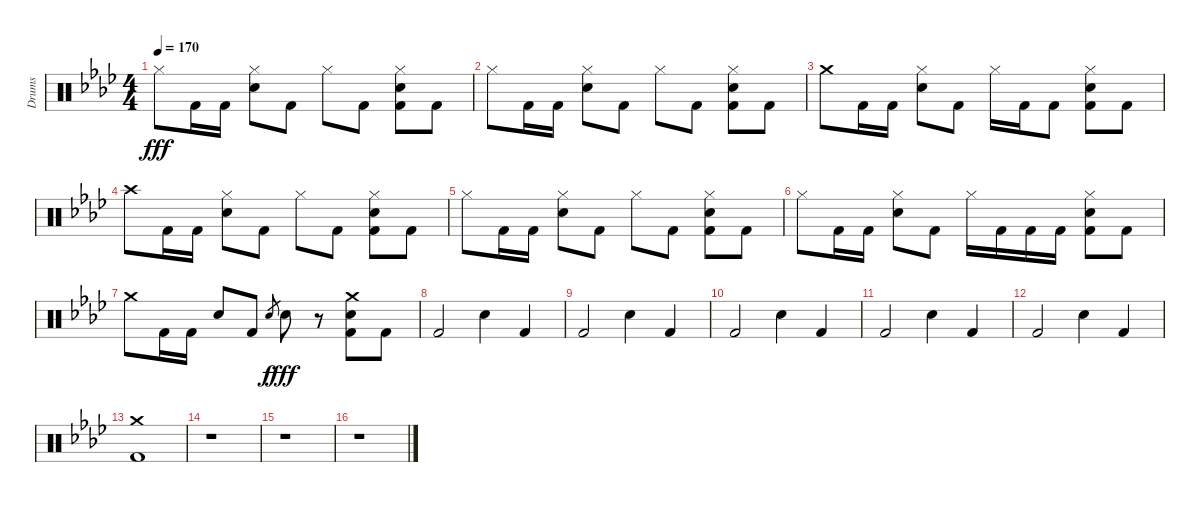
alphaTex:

\track ("Drums" "Drums") {instrument percussion}
\staff {score}
\articulation defaults
\ts (4 4)
\tempo 170
\clef neutral
\ks fminor "Hi-Hat (closed)".8{dy fff} "Kick (hit) 2".16 "Kick (hit) 2".16
("Hi-Hat (closed)" "Snare (hit) 2").8 "Kick (hit) 2".8 "Hi-Hat (closed)".8 "Kick (hit) 2".8 ("Hi-Hat (closed)" "Snare (hit) 2" "Kick (hit) 2").8 "Kick (hit) 2".8 |
"Hi-Hat (closed)".8 "Kick (hit) 2".16 "Kick (hit) 2".16 ("Hi-Hat (closed)" "Snare (hit) 2").8 "Kick (hit) 2".8 "Hi-Hat (closed)".8 "Kick (hit) 2".8 ("Hi-Hat (closed)" "Snare (hit) 2" "Kick (hit) 2").8 "Kick (hit) 2".8 |
"Crash medium (hit)".8 "Kick (hit) 2".16 "Kick (hit) 2".16 ("Hi-Hat (closed)" "Snare (hit) 2").8 "Kick (hit) 2".8 "Hi-Hat (closed)".16 "Kick (hit) 2".16 "Kick (hit) 2".8 ("Hi-Hat (closed)" "Snare (hit) 2" "Kick (hit) 2").8 "Kick (hit) 2".8 |
"Crash high (hit)".8 "Kick (hit) 2".16 "Kick (hit) 2".16 ("Hi-Hat (closed)" "Snare (hit) 2").8 "Kick (hit) 2".8 "Hi-Hat (closed)".8 "Kick (hit) 2".8 ("Hi-Hat (closed)" "Snare (hit) 2" "Kick (hit) 2").8 "Kick (hit) 2".8 |
"Hi-Hat (closed)".8 "Kick (hit) 2".16 "Kick (hit) 2".16 ("Hi-Hat (closed)" "Snare (hit) 2").8 "Kick (hit) 2".8 "Hi-Hat (closed)".8 "Kick (hit) 2".8 ("Hi-Hat (closed)" "Snare (hit) 2" "Kick (hit) 2").8 "Kick (hit) 2".8 |
"Hi-Hat (closed)".8 "Kick (hit) 2".16 "Kick (hit) 2".16 ("Hi-Hat (closed)" "Snare (hit) 2").8 "Kick (hit) 2".8 "Hi-Hat (closed)".16 "Kick (hit) 2".16 "Kick (hit) 2".16 "Kick (hit) 2".16 ("Hi-Hat (closed)" "Snare (hit) 2" "Kick (hit) 2").8 "Kick (hit) 2".8 |
"Crash medium (hit)".8 "Kick (hit) 2".16 "Kick (hit) 2".16 "Snare (hit) 2".8 "Kick (hit) 2".8 "Snare (hit) 2".8{gr dy f} "Snare (hit) 2".8{dy fff} r.8 ("Crash medium (hit)" "Snare (hit) 2" "Kick (hit) 2").8 "Kick (hit) 2".8 |
"Kick (hit) 2".2 "Snare (hit) 2".4 "Kick (hit) 2".4 |
"Kick (hit) 2".2 "Snare (hit) 2".4 "Kick (hit) 2".4 |
"Kick (hit) 2".2 "Snare (hit) 2".4 "Kick (hit) 2".4 |
"Kick (hit) 2".2 "Snare (hit) 2".4 "Kick (hit) 2".4 |
"Kick (hit) 2".2 "Snare (hit) 2".4 "Kick (hit) 2".4 |
("Crash medium (hit)" "Kick (hit) 2").1 |
r.1 |
r.1 |
r.1
